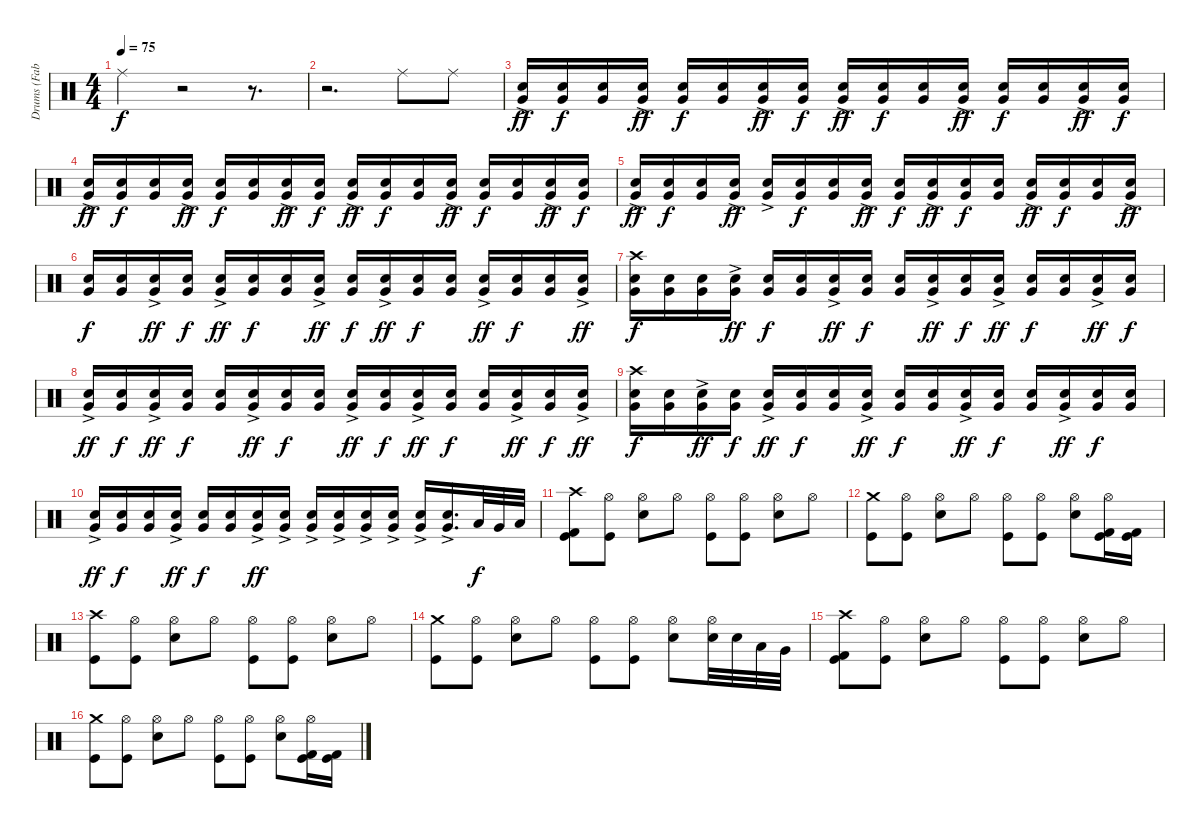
\track ("Drums (Fabien)" "Drums (Fab") {instrument percussion}
\staff {score}
\articulation defaults
\ts (4 4)
\tempo 75
\clef neutral
\ks c "Ride (middle)".4{dy f}
r.2 r.8{d} |
r.2{d} "Ride (middle)".8 "Ride (middle)".8 |
("Very Low Tom (hit)" "Snare (hit) 2"{ac}).16{dy ff} ("Very Low Tom (hit)" "Snare (hit) 2").16{dy f} ("Very Low Tom (hit)" "Snare (hit) 2").16 ("Very Low Tom (hit)" "Snare (hit) 2"{ac}).16{dy ff} ("Very Low Tom (hit)" "Snare (hit) 2").16{dy f} ("Very Low Tom (hit)" "Snare (hit) 2").16 ("Very Low Tom (hit)" "Snare (hit) 2"{ac}).16{dy ff} ("Very Low Tom (hit)" "Snare (hit) 2").16{dy f} ("Very Low Tom (hit)" "Snare (hit) 2"{ac}).16{dy ff} ("Very Low Tom (hit)" "Snare (hit) 2").16{dy f} ("Very Low Tom (hit)" "Snare (hit) 2").16 ("Very Low Tom (hit)" "Snare (hit) 2"{ac}).16{dy ff} ("Very Low Tom (hit)" "Snare (hit) 2").16{dy f} ("Very Low Tom (hit)" "Snare (hit) 2").16 ("Very Low Tom (hit)" "Snare (hit) 2"{ac}).16{dy ff} ("Very Low Tom (hit)" "Snare (hit) 2").16{dy f} |
("Very Low Tom (hit)" "Snare (hit) 2"{ac}).16{dy ff} ("Very Low Tom (hit)" "Snare (hit) 2").16{dy f} ("Very Low Tom (hit)" "Snare (hit) 2").16 ("Very Low Tom (hit)" "Snare (hit) 2"{ac}).16{dy ff} ("Very Low Tom (hit)" "Snare (hit) 2").16{dy f} ("Very Low Tom (hit)" "Snare (hit) 2").16 ("Very Low Tom (hit)" "Snare (hit) 2"{ac}).16{dy ff} ("Very Low Tom (hit)" "Snare (hit) 2").16{dy f} ("Very Low Tom (hit)" "Snare (hit) 2"{ac}).16{dy ff} ("Very Low Tom (hit)" "Snare (hit) 2").16{dy f} ("Very Low Tom (hit)" "Snare (hit) 2").16 ("Very Low Tom (hit)" "Snare (hit) 2"{ac}).16{dy ff} ("Very Low Tom (hit)" "Snare (hit) 2").16{dy f} ("Very Low Tom (hit)" "Snare (hit) 2").16 ("Very Low Tom (hit)" "Snare (hit) 2"{ac}).16{dy ff} ("Very Low Tom (hit)" "Snare (hit) 2").16{dy f} |
("Very Low Tom (hit)" "Snare (hit) 2"{ac}).16{dy ff} ("Very Low Tom (hit)" "Snare (hit) 2").16{dy f} ("Very Low Tom (hit)" "Snare (hit) 2").16 ("Very Low Tom (hit)" "Snare (hit) 2"{ac}).16{dy ff} ("Very Low Tom (hit)" "Snare (hit) 2"{ac}).16 ("Very Low Tom (hit)" "Snare (hit) 2").16{dy f} ("Very Low Tom (hit)" "Snare (hit) 2").16 ("Very Low Tom (hit)" "Snare (hit) 2"{ac}).16{dy ff} ("Very Low Tom (hit)" "Snare (hit) 2").16{dy f} ("Very Low Tom (hit)" "Snare (hit) 2"{ac}).16{dy ff} ("Very Low Tom (hit)" "Snare (hit) 2").16{dy f} ("Very Low Tom (hit)" "Snare (hit) 2").16 ("Very Low Tom (hit)" "Snare (hit) 2"{ac}).16{dy ff} ("Very Low Tom (hit)" "Snare (hit) 2").16{dy f} ("Very Low Tom (hit)" "Snare (hit) 2").16 ("Very Low Tom (hit)" "Snare (hit) 2"{ac}).16{dy ff} |
("Very Low Tom (hit)" "Snare (hit) 2").16{dy f} ("Very Low Tom (hit)" "Snare (hit) 2").16 ("Very Low Tom (hit)" "Snare (hit) 2"{ac}).16{dy ff} ("Very Low Tom (hit)" "Snare (hit) 2").16{dy f} ("Very Low Tom (hit)" "Snare (hit) 2"{ac}).16{dy ff} ("Very Low Tom (hit)" "Snare (hit) 2").16{dy f} ("Very Low Tom (hit)" "Snare (hit) 2").16 ("Very Low Tom (hit)" "Snare (hit) 2"{ac}).16{dy ff} ("Very Low Tom (hit)" "Snare (hit) 2").16{dy f} ("Very Low Tom (hit)" "Snare (hit) 2"{ac}).16{dy ff} ("Very Low Tom (hit)" "Snare (hit) 2").16{dy f} ("Very Low Tom (hit)" "Snare (hit) 2").16 ("Very Low Tom (hit)" "Snare (hit) 2"{ac}).16{dy ff} ("Very Low Tom (hit)" "Snare (hit) 2").16{dy f} ("Very Low Tom (hit)" "Snare (hit) 2").16 ("Very Low Tom (hit)" "Snare (hit) 2"{ac}).16{dy ff} |
("Crash high (hit)" "Very Low Tom (hit)" "Snare (hit) 2").16{dy f} ("Very Low Tom (hit)" "Snare (hit) 2").16 ("Very Low Tom (hit)" "Snare (hit) 2").16 ("Very Low Tom (hit)" "Snare (hit) 2"{ac}).16{dy ff} ("Very Low Tom (hit)" "Snare (hit) 2").16{dy f} ("Very Low Tom (hit)" "Snare (hit) 2").16 ("Very Low Tom (hit)" "Snare (hit) 2"{ac}).16{dy ff} ("Very Low Tom (hit)" "Snare (hit) 2").16{dy f} ("Very Low Tom (hit)" "Snare (hit) 2").16 ("Very Low Tom (hit)" "Snare (hit) 2"{ac}).16{dy ff} ("Very Low Tom (hit)" "Snare (hit) 2").16{dy f} ("Very Low Tom (hit)" "Snare (hit) 2"{ac}).16{dy ff} ("Very Low Tom (hit)" "Snare (hit) 2").16{dy f} ("Very Low Tom (hit)" "Snare (hit) 2").16 ("Very Low Tom (hit)" "Snare (hit) 2"{ac}).16{dy ff} ("Very Low Tom (hit)" "Snare (hit) 2").16{dy f} |
("Very Low Tom (hit)" "Snare (hit) 2"{ac}).16{dy ff} ("Very Low Tom (hit)" "Snare (hit) 2").16{dy f} ("Very Low Tom (hit)" "Snare (hit) 2"{ac}).16{dy ff} ("Very Low Tom (hit)" "Snare (hit) 2").16{dy f} ("Very Low Tom (hit)" "Snare (hit) 2").16 ("Very Low Tom (hit)" "Snare (hit) 2"{ac}).16{dy ff} ("Very Low Tom (hit)" "Snare (hit) 2").16{dy f} ("Very Low Tom (hit)" "Snare (hit) 2").16 ("Very Low Tom (hit)" "Snare (hit) 2"{ac}).16{dy ff} ("Very Low Tom (hit)" "Snare (hit) 2").16{dy f} ("Very Low Tom (hit)" "Snare (hit) 2"{ac}).16{dy ff} ("Very Low Tom (hit)" "Snare (hit) 2").16{dy f} ("Very Low Tom (hit)" "Snare (hit) 2").16 ("Very Low Tom (hit)" "Snare (hit) 2"{ac}).16{dy ff} ("Very Low Tom (hit)" "Snare (hit) 2").16{dy f} ("Very Low Tom (hit)" "Snare (hit) 2"{ac}).16{dy ff} |
("Crash high (hit)" "Very Low Tom (hit)" "Snare (hit) 2").16{dy f} ("Very Low Tom (hit)" "Snare (hit) 2").16 ("Very Low Tom (hit)" "Snare (hit) 2"{ac}).16{dy ff} ("Very Low Tom (hit)" "Snare (hit) 2").16{dy f} ("Very Low Tom (hit)" "Snare (hit) 2"{ac}).16{dy ff} ("Very Low Tom (hit)" "Snare (hit) 2").16{dy f} ("Very Low Tom (hit)" "Snare (hit) 2").16 ("Very Low Tom (hit)" "Snare (hit) 2"{ac}).16{dy ff} ("Very Low Tom (hit)" "Snare (hit) 2").16{dy f} ("Very Low Tom (hit)" "Snare (hit) 2").16 ("Very Low Tom (hit)" "Snare (hit) 2"{ac}).16{dy ff} ("Very Low Tom (hit)" "Snare (hit) 2").16{dy f} ("Very Low Tom (hit)" "Snare (hit) 2").16 ("Very Low Tom (hit)" "Snare (hit) 2"{ac}).16{dy ff} ("Very Low Tom (hit)" "Snare (hit) 2").16{dy f} ("Very Low Tom (hit)" "Snare (hit) 2").16 |
("Very Low Tom (hit)" "Snare (hit) 2"{ac}).16{dy ff} ("Very Low Tom (hit)" "Snare (hit) 2").16{dy f} ("Very Low Tom (hit)" "Snare (hit) 2").16 ("Very Low Tom (hit)" "Snare (hit) 2"{ac}).16{dy ff} ("Very Low Tom (hit)" "Snare (hit) 2").16{dy f} ("Very Low Tom (hit)" "Snare (hit) 2").16 ("Very Low Tom (hit)" "Snare (hit) 2"{ac}).16{dy ff} ("Very Low Tom (hit)" "Snare (hit) 2"{ac}).16 ("Very Low Tom (hit)" "Snare (hit) 2"{ac}).16 ("Very Low Tom (hit)" "Snare (hit) 2"{ac}).16 ("Very Low Tom (hit)" "Snare (hit) 2"{ac}).16 ("Very Low Tom (hit)" "Snare (hit) 2"{ac}).16 ("Very Low Tom (hit)" "Snare (hit) 2"{ac}).16 ("Very Low Tom (hit)" "Snare (hit) 2"{ac}).16{d} "Low Tom (hit)".32{dy f} "Very Low Tom (hit)".32 "Low Floor Tom (hit)".32 |
("Crash high (hit)" "Kick (hit) 2" "Kick (hit)").8 ("Hi-Hat (open)" "Kick (hit)").8 ("Hi-Hat (open)" "Snare (hit) 2").8 "Hi-Hat (open)".8 ("Hi-Hat (open)" "Kick (hit)").8 ("Hi-Hat (open)" "Kick (hit)").8 ("Hi-Hat (open)" "Snare (hit) 2").8 "Hi-Hat (open)".8 |
("Crash medium (hit)" "Kick (hit)").8 ("Hi-Hat (open)" "Kick (hit)").8 ("Hi-Hat (open)" "Snare (hit) 2").8 "Hi-Hat (open)".8 ("Hi-Hat (open)" "Kick (hit)").8 ("Hi-Hat (open)" "Kick (hit)").8 ("Hi-Hat (open)" "Snare (hit) 2").8 ("Hi-Hat (open)" "Kick (hit) 2" "Kick (hit)").16 ("Kick (hit) 2" "Kick (hit)").16 |
("Crash high (hit)" "Kick (hit)").8 ("Hi-Hat (open)" "Kick (hit)").8 ("Hi-Hat (open)" "Snare (hit) 2").8 "Hi-Hat (open)".8 ("Hi-Hat (open)" "Kick (hit)").8 ("Hi-Hat (open)" "Kick (hit)").8 ("Hi-Hat (open)" "Snare (hit) 2").8 "Hi-Hat (open)".8 |
("Crash medium (hit)" "Kick (hit)").8 ("Hi-Hat (open)" "Kick (hit)").8 ("Hi-Hat (open)" "Snare (hit) 2").8 "Hi-Hat (open)".8 ("Hi-Hat (open)" "Kick (hit)").8 ("Hi-Hat (open)" "Kick (hit)").8 ("Hi-Hat (open)" "Snare (hit) 2").8 ("Hi-Hat (open)" "Snare (hit) 2").32 "Snare (hit) 2".32 "Low Tom (hit)".32 "Very Low Tom (hit)".32 |
("Crash high (hit)" "Kick (hit) 2" "Kick (hit)").8 ("Hi-Hat (open)" "Kick (hit)").8 ("Hi-Hat (open)" "Snare (hit) 2").8 "Hi-Hat (open)".8 ("Hi-Hat (open)" "Kick (hit)").8 ("Hi-Hat (open)" "Kick (hit)").8 ("Hi-Hat (open)" "Snare (hit) 2").8 "Hi-Hat (open)".8 |
("Crash medium (hit)" "Kick (hit)").8 ("Hi-Hat (open)" "Kick (hit)").8 ("Hi-Hat (open)" "Snare (hit) 2").8 "Hi-Hat (open)".8 ("Hi-Hat (open)" "Kick (hit)").8 ("Hi-Hat (open)" "Kick (hit)").8 ("Hi-Hat (open)" "Snare (hit) 2").8 ("Hi-Hat (open)" "Kick (hit) 2" "Kick (hit)").16 ("Kick (hit) 2" "Kick (hit)").16
